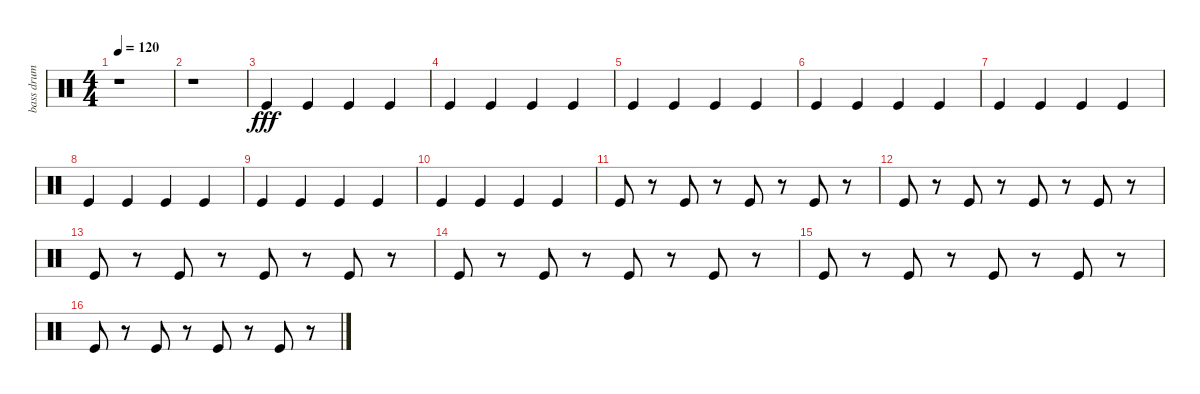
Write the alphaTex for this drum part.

\track ("bass drum" "bass drum") {instrument percussion}
\staff {score}
\articulation defaults
\ts (4 4)
\tempo 120
\clef neutral
\ks c
r.1{dy fff} |
r.1 |
"Kick (hit)".4 "Kick (hit)".4 "Kick (hit)".4 "Kick (hit)".4 |
"Kick (hit)".4 "Kick (hit)".4 "Kick (hit)".4 "Kick (hit)".4 |
"Kick (hit)".4 "Kick (hit)".4 "Kick (hit)".4 "Kick (hit)".4 |
"Kick (hit)".4 "Kick (hit)".4 "Kick (hit)".4 "Kick (hit)".4 |
"Kick (hit)".4 "Kick (hit)".4 "Kick (hit)".4 "Kick (hit)".4 |
"Kick (hit)".4 "Kick (hit)".4 "Kick (hit)".4 "Kick (hit)".4 |
"Kick (hit)".4 "Kick (hit)".4 "Kick (hit)".4 "Kick (hit)".4 |
"Kick (hit)".4 "Kick (hit)".4 "Kick (hit)".4 "Kick (hit)".4 |
"Kick (hit)".8 r.8 "Kick (hit)".8 r.8 "Kick (hit)".8 r.8 "Kick (hit)".8 r.8 |
"Kick (hit)".8 r.8 "Kick (hit)".8 r.8 "Kick (hit)".8 r.8 "Kick (hit)".8 r.8 |
"Kick (hit)".8 r.8 "Kick (hit)".8 r.8 "Kick (hit)".8 r.8 "Kick (hit)".8 r.8 |
"Kick (hit)".8 r.8 "Kick (hit)".8 r.8 "Kick (hit)".8 r.8 "Kick (hit)".8 r.8 |
"Kick (hit)".8 r.8 "Kick (hit)".8 r.8 "Kick (hit)".8 r.8 "Kick (hit)".8 r.8 |
"Kick (hit)".8 r.8 "Kick (hit)".8 r.8 "Kick (hit)".8 r.8 "Kick (hit)".8 r.8
